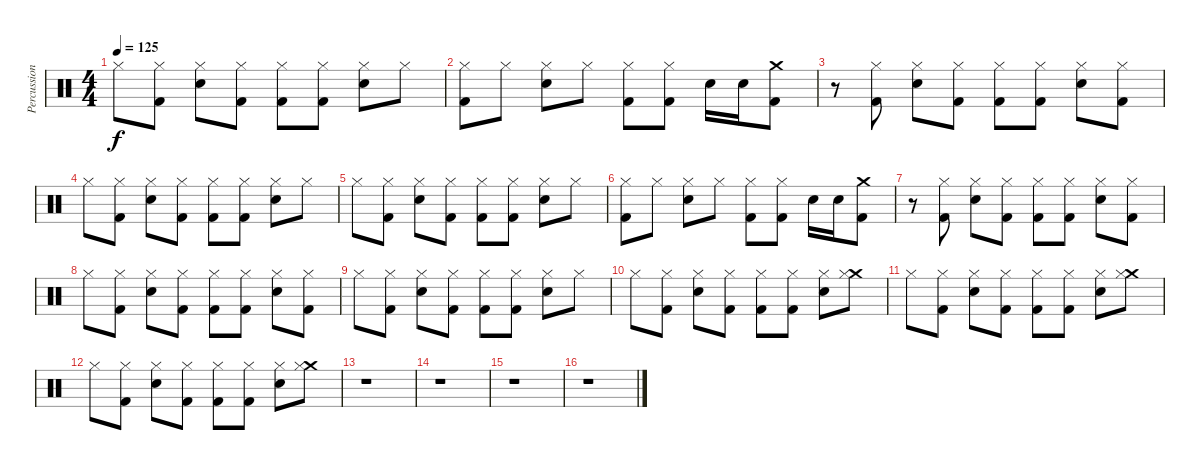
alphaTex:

\track ("Percussion" "Percussion") {instrument percussion}
\staff {score}
\articulation defaults
\ts (4 4)
\tempo 125
\clef neutral
\ks c "Hi-Hat (closed)".8{dy f}
("Hi-Hat (closed)" "Kick (hit) 2").8 ("Hi-Hat (closed)" "Electric Snare (hit)").8 ("Hi-Hat (closed)" "Kick (hit) 2").8 ("Hi-Hat (closed)" "Kick (hit) 2").8 ("Hi-Hat (closed)" "Kick (hit) 2").8 ("Hi-Hat (closed)" "Electric Snare (hit)").8 "Hi-Hat (closed)".8 |
("Hi-Hat (closed)" "Kick (hit) 2").8 "Hi-Hat (closed)".8 ("Hi-Hat (closed)" "Electric Snare (hit)").8 "Hi-Hat (closed)".8 ("Hi-Hat (closed)" "Kick (hit) 2").8 ("Hi-Hat (closed)" "Kick (hit) 2").8 "Electric Snare (hit)".16 "Electric Snare (hit)".16 ("Crash medium (hit)" "Kick (hit) 2").8 |
r.8 ("Hi-Hat (closed)" "Kick (hit) 2").8 ("Hi-Hat (closed)" "Electric Snare (hit)").8 ("Hi-Hat (closed)" "Kick (hit) 2").8 ("Hi-Hat (closed)" "Kick (hit) 2").8 ("Hi-Hat (closed)" "Kick (hit) 2").8 ("Hi-Hat (closed)" "Electric Snare (hit)").8 ("Hi-Hat (closed)" "Kick (hit) 2").8 |
"Hi-Hat (closed)".8 ("Hi-Hat (closed)" "Kick (hit) 2").8 ("Hi-Hat (closed)" "Electric Snare (hit)").8 ("Hi-Hat (closed)" "Kick (hit) 2").8 ("Hi-Hat (closed)" "Kick (hit) 2").8 ("Hi-Hat (closed)" "Kick (hit) 2").8 ("Hi-Hat (closed)" "Electric Snare (hit)").8 "Hi-Hat (closed)".8 |
"Hi-Hat (closed)".8 ("Hi-Hat (closed)" "Kick (hit) 2").8 ("Hi-Hat (closed)" "Electric Snare (hit)").8 ("Hi-Hat (closed)" "Kick (hit) 2").8 ("Hi-Hat (closed)" "Kick (hit) 2").8 ("Hi-Hat (closed)" "Kick (hit) 2").8 ("Hi-Hat (closed)" "Electric Snare (hit)").8 "Hi-Hat (closed)".8 |
("Hi-Hat (closed)" "Kick (hit) 2").8 "Hi-Hat (closed)".8 ("Hi-Hat (closed)" "Electric Snare (hit)").8 "Hi-Hat (closed)".8 ("Hi-Hat (closed)" "Kick (hit) 2").8 ("Hi-Hat (closed)" "Kick (hit) 2").8 "Electric Snare (hit)".16 "Electric Snare (hit)".16 ("Crash medium (hit)" "Kick (hit) 2").8 |
r.8 ("Hi-Hat (closed)" "Kick (hit) 2").8 ("Hi-Hat (closed)" "Electric Snare (hit)").8 ("Hi-Hat (closed)" "Kick (hit) 2").8 ("Hi-Hat (closed)" "Kick (hit) 2").8 ("Hi-Hat (closed)" "Kick (hit) 2").8 ("Hi-Hat (closed)" "Electric Snare (hit)").8 ("Hi-Hat (closed)" "Kick (hit) 2").8 |
"Hi-Hat (closed)".8 ("Hi-Hat (closed)" "Kick (hit) 2").8 ("Hi-Hat (closed)" "Electric Snare (hit)").8 ("Hi-Hat (closed)" "Kick (hit) 2").8 ("Hi-Hat (closed)" "Kick (hit) 2").8 ("Hi-Hat (closed)" "Kick (hit) 2").8 ("Hi-Hat (closed)" "Electric Snare (hit)").8 ("Hi-Hat (closed)" "Kick (hit) 2").8 |
"Hi-Hat (closed)".8 ("Hi-Hat (closed)" "Kick (hit) 2").8 ("Hi-Hat (closed)" "Electric Snare (hit)").8 ("Hi-Hat (closed)" "Kick (hit) 2").8 ("Hi-Hat (closed)" "Kick (hit) 2").8 ("Hi-Hat (closed)" "Kick (hit) 2").8 ("Hi-Hat (closed)" "Electric Snare (hit)").8 "Hi-Hat (closed)".8 |
"Hi-Hat (closed)".8 ("Hi-Hat (closed)" "Kick (hit) 2").8 ("Hi-Hat (closed)" "Electric Snare (hit)").8 ("Hi-Hat (closed)" "Kick (hit) 2").8 ("Hi-Hat (closed)" "Kick (hit) 2").8 ("Hi-Hat (closed)" "Kick (hit) 2").8 ("Hi-Hat (closed)" "Electric Snare (hit)").8 ("Crash medium (hit)" "Hi-Hat (closed)").8 |
"Hi-Hat (closed)".8 ("Hi-Hat (closed)" "Kick (hit) 2").8 ("Hi-Hat (closed)" "Electric Snare (hit)").8 ("Hi-Hat (closed)" "Kick (hit) 2").8 ("Hi-Hat (closed)" "Kick (hit) 2").8 ("Hi-Hat (closed)" "Kick (hit) 2").8 ("Hi-Hat (closed)" "Electric Snare (hit)").8 ("Crash medium (hit)" "Hi-Hat (closed)").8 |
"Hi-Hat (closed)".8 ("Hi-Hat (closed)" "Kick (hit) 2").8 ("Hi-Hat (closed)" "Electric Snare (hit)").8 ("Hi-Hat (closed)" "Kick (hit) 2").8 ("Hi-Hat (closed)" "Kick (hit) 2").8 ("Hi-Hat (closed)" "Kick (hit) 2").8 ("Hi-Hat (closed)" "Electric Snare (hit)").8 ("Crash medium (hit)" "Hi-Hat (closed)").8 |
r.1 |
r.1 |
r.1 |
r.1
